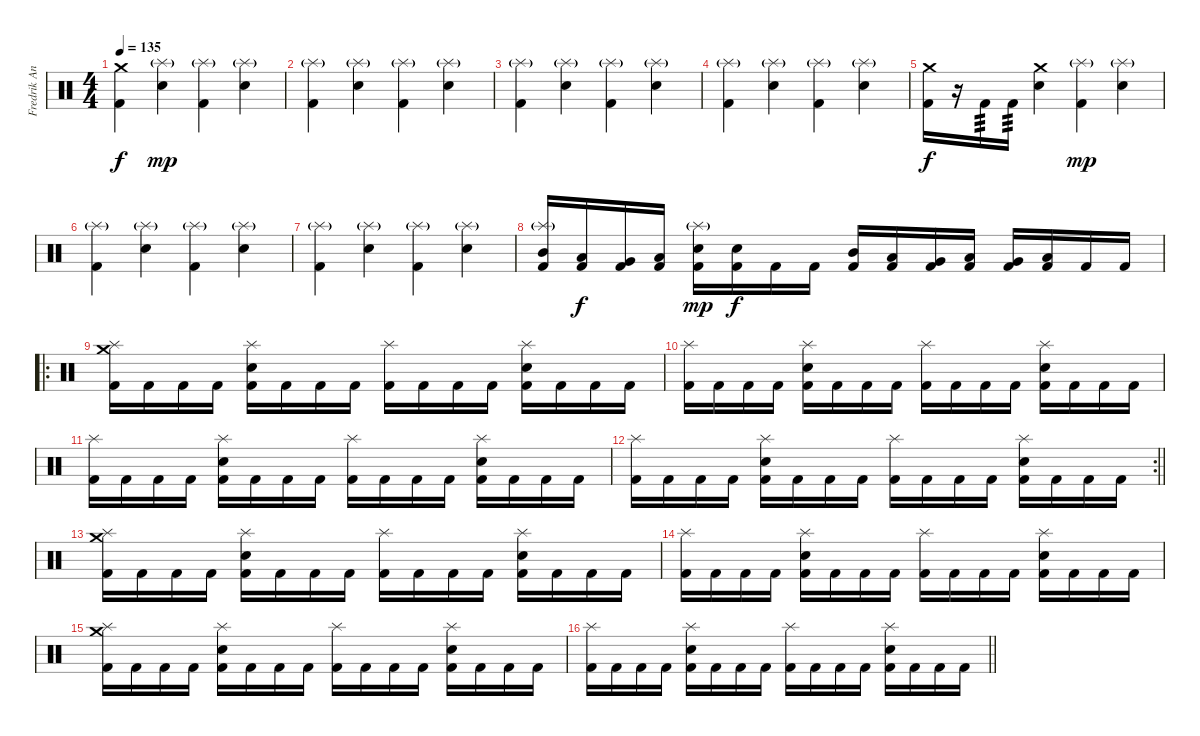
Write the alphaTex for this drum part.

\track ("Fredrik Andersson" "Fredrik An") {instrument percussion}
\staff {score}
\articulation defaults
\ts (4 4)
\tempo 135
\clef neutral
\ks c
("Kick (hit) 2" "Crash medium (hit)").4{dy f} ("Snare (hit) 2" "Splash (hit)"{g}).4{dy mp} ("Kick (hit) 2" "Splash (hit)"{g}).4 ("Snare (hit) 2" "Splash (hit)"{g}).4 |
("Kick (hit) 2" "Splash (hit)"{g}).4 ("Snare (hit) 2" "Splash (hit)"{g}).4 ("Kick (hit) 2" "Splash (hit)"{g}).4 ("Snare (hit) 2" "Splash (hit)"{g}).4 |
("Kick (hit) 2" "Splash (hit)"{g}).4 ("Snare (hit) 2" "Splash (hit)"{g}).4 ("Kick (hit) 2" "Splash (hit)"{g}).4 ("Snare (hit) 2" "Splash (hit)"{g}).4 |
("Kick (hit) 2" "Splash (hit)"{g}).4 ("Snare (hit) 2" "Splash (hit)"{g}).4 ("Kick (hit) 2" "Splash (hit)"{g}).4 ("Snare (hit) 2" "Splash (hit)"{g}).4 |
("Kick (hit) 2" "Crash medium (hit)").16{dy f} r.16 "Kick (hit) 2".16{tp 3} "Kick (hit) 2".16{tp 3} ("Snare (hit) 2" "Crash medium (hit)").4 ("Kick (hit) 2" "Splash (hit)"{g}).4{dy mp} ("Snare (hit) 2" "Splash (hit)"{g}).4 |
("Kick (hit) 2" "Splash (hit)"{g}).4 ("Snare (hit) 2" "Splash (hit)"{g}).4 ("Kick (hit) 2" "Splash (hit)"{g}).4 ("Snare (hit) 2" "Splash (hit)"{g}).4 |
("Kick (hit) 2" "Splash (hit)"{g}).4 ("Snare (hit) 2" "Splash (hit)"{g}).4 ("Kick (hit) 2" "Splash (hit)"{g}).4 ("Snare (hit) 2" "Splash (hit)"{g}).4 |
("Kick (hit) 2" "Mid Tom (hit)" "Splash (hit)"{g}).16 ("Kick (hit) 2" "Low Tom (hit)").16{dy f} ("Kick (hit) 2" "Very Low Tom (hit)").16 ("Kick (hit) 2" "Low Floor Tom (hit)").16 ("Kick (hit) 2" "Snare (hit) 2" "Splash (hit)"{g}).16{dy mp} ("Kick (hit) 2" "Snare (hit) 2").16{dy f} "Kick (hit) 2".16 "Kick (hit) 2".16 ("Kick (hit) 2" "Mid Tom (hit)").16 ("Kick (hit) 2" "Low Tom (hit)").16 ("Kick (hit) 2" "Very Low Tom (hit)").16 ("Kick (hit) 2" "Low Floor Tom (hit)").16 ("Kick (hit) 2" "Very Low Tom (hit)").16 ("Kick (hit) 2" "Low Floor Tom (hit)").16 "Kick (hit) 2".16 "Kick (hit) 2".16 |
\ro
("Kick (hit) 2" "Splash (hit)" "Crash medium (hit)").16 "Kick (hit) 2".16 "Kick (hit) 2".16 "Kick (hit) 2".16 ("Kick (hit) 2" "Snare (hit) 2" "Splash (hit)").16 "Kick (hit) 2".16 "Kick (hit) 2".16 "Kick (hit) 2".16 ("Kick (hit) 2" "Splash (hit)").16 "Kick (hit) 2".16 "Kick (hit) 2".16 "Kick (hit) 2".16 ("Kick (hit) 2" "Snare (hit) 2" "Splash (hit)").16 "Kick (hit) 2".16 "Kick (hit) 2".16 "Kick (hit) 2".16 |
("Kick (hit) 2" "Splash (hit)").16 "Kick (hit) 2".16 "Kick (hit) 2".16 "Kick (hit) 2".16 ("Kick (hit) 2" "Snare (hit) 2" "Splash (hit)").16 "Kick (hit) 2".16 "Kick (hit) 2".16 "Kick (hit) 2".16 ("Kick (hit) 2" "Splash (hit)").16 "Kick (hit) 2".16 "Kick (hit) 2".16 "Kick (hit) 2".16 ("Kick (hit) 2" "Snare (hit) 2" "Splash (hit)").16 "Kick (hit) 2".16 "Kick (hit) 2".16 "Kick (hit) 2".16 |
("Kick (hit) 2" "Splash (hit)").16 "Kick (hit) 2".16 "Kick (hit) 2".16 "Kick (hit) 2".16 ("Kick (hit) 2" "Snare (hit) 2" "Splash (hit)").16 "Kick (hit) 2".16 "Kick (hit) 2".16 "Kick (hit) 2".16 ("Kick (hit) 2" "Splash (hit)").16 "Kick (hit) 2".16 "Kick (hit) 2".16 "Kick (hit) 2".16 ("Kick (hit) 2" "Snare (hit) 2" "Splash (hit)").16 "Kick (hit) 2".16 "Kick (hit) 2".16 "Kick (hit) 2".16 |
\rc 2
\barLineRight lightlight
("Kick (hit) 2" "Splash (hit)").16 "Kick (hit) 2".16 "Kick (hit) 2".16 "Kick (hit) 2".16 ("Kick (hit) 2" "Snare (hit) 2" "Splash (hit)").16 "Kick (hit) 2".16 "Kick (hit) 2".16 "Kick (hit) 2".16 ("Kick (hit) 2" "Splash (hit)").16 "Kick (hit) 2".16 "Kick (hit) 2".16 "Kick (hit) 2".16 ("Kick (hit) 2" "Snare (hit) 2" "Splash (hit)").16 "Kick (hit) 2".16 "Kick (hit) 2".16 "Kick (hit) 2".16 |
("Kick (hit) 2" "Splash (hit)" "Crash medium (hit)").16 "Kick (hit) 2".16 "Kick (hit) 2".16 "Kick (hit) 2".16 ("Kick (hit) 2" "Snare (hit) 2" "Splash (hit)").16 "Kick (hit) 2".16 "Kick (hit) 2".16 "Kick (hit) 2".16 ("Kick (hit) 2" "Splash (hit)").16 "Kick (hit) 2".16 "Kick (hit) 2".16 "Kick (hit) 2".16 ("Kick (hit) 2" "Snare (hit) 2" "Splash (hit)").16 "Kick (hit) 2".16 "Kick (hit) 2".16 "Kick (hit) 2".16 |
("Kick (hit) 2" "Splash (hit)").16 "Kick (hit) 2".16 "Kick (hit) 2".16 "Kick (hit) 2".16 ("Kick (hit) 2" "Snare (hit) 2" "Splash (hit)").16 "Kick (hit) 2".16 "Kick (hit) 2".16 "Kick (hit) 2".16 ("Kick (hit) 2" "Splash (hit)").16 "Kick (hit) 2".16 "Kick (hit) 2".16 "Kick (hit) 2".16 ("Kick (hit) 2" "Snare (hit) 2" "Splash (hit)").16 "Kick (hit) 2".16 "Kick (hit) 2".16 "Kick (hit) 2".16 |
("Kick (hit) 2" "Splash (hit)" "Crash medium (hit)").16 "Kick (hit) 2".16 "Kick (hit) 2".16 "Kick (hit) 2".16 ("Kick (hit) 2" "Snare (hit) 2" "Splash (hit)").16 "Kick (hit) 2".16 "Kick (hit) 2".16 "Kick (hit) 2".16 ("Kick (hit) 2" "Splash (hit)").16 "Kick (hit) 2".16 "Kick (hit) 2".16 "Kick (hit) 2".16 ("Kick (hit) 2" "Snare (hit) 2" "Splash (hit)").16 "Kick (hit) 2".16 "Kick (hit) 2".16 "Kick (hit) 2".16 |
\barLineRight lightlight
("Kick (hit) 2" "Splash (hit)").16 "Kick (hit) 2".16 "Kick (hit) 2".16 "Kick (hit) 2".16 ("Kick (hit) 2" "Snare (hit) 2" "Splash (hit)").16 "Kick (hit) 2".16 "Kick (hit) 2".16 "Kick (hit) 2".16 ("Kick (hit) 2" "Splash (hit)").16 "Kick (hit) 2".16 "Kick (hit) 2".16 "Kick (hit) 2".16 ("Kick (hit) 2" "Snare (hit) 2" "Splash (hit)").16 "Kick (hit) 2".16 "Kick (hit) 2".16 "Kick (hit) 2".16
